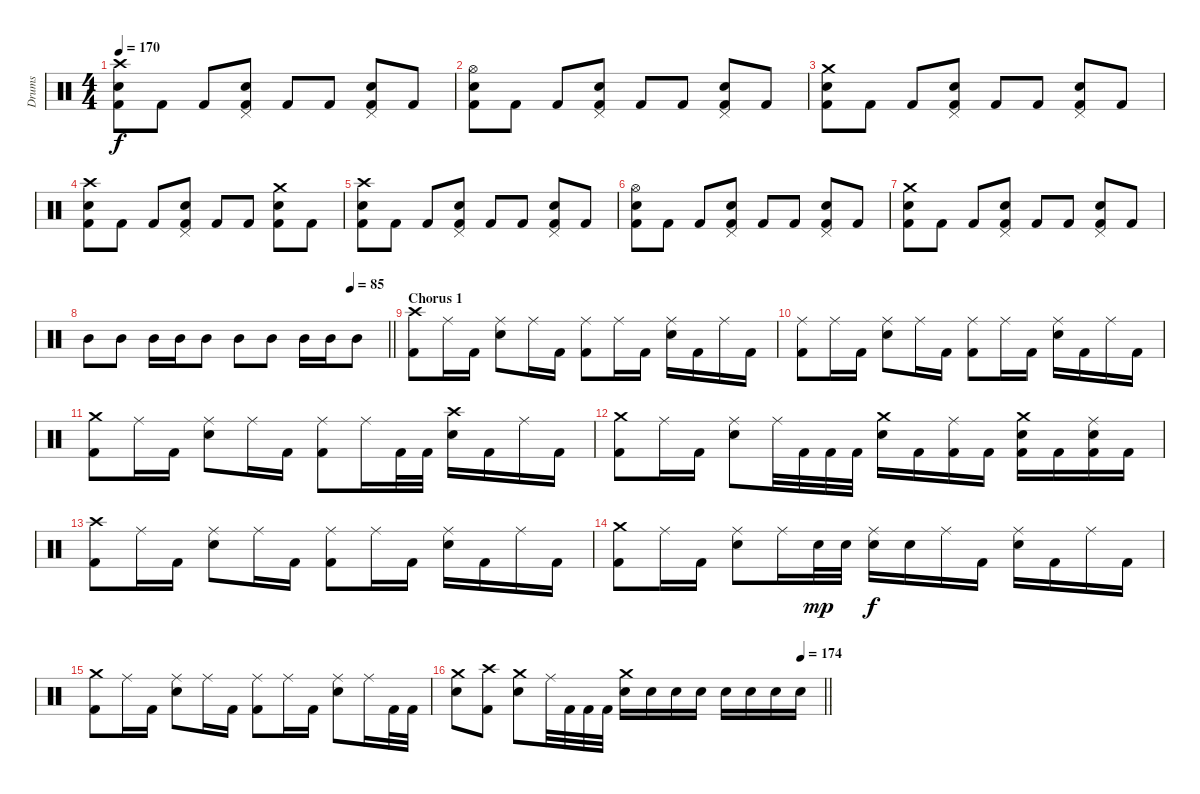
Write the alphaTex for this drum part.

\track ("Drums" "Drums") {instrument percussion}
\staff {score}
\articulation defaults
\ts (4 4)
\tempo 170
\clef neutral
\ks c
("Crash high (hit)" "Electric Snare (hit)" "Kick (hit) 2").8{dy f} "Kick (hit) 2".8 "Kick (hit) 2".8 ("Pedal Hi-Hat (hit)" "Electric Snare (hit)" "Kick (hit) 2").8 "Kick (hit) 2".8 "Kick (hit) 2".8 ("Pedal Hi-Hat (hit)" "Electric Snare (hit)" "Kick (hit) 2").8 "Kick (hit) 2".8 |
("Hi-Hat (open)" "Electric Snare (hit)" "Kick (hit) 2").8 "Kick (hit) 2".8 "Kick (hit) 2".8 ("Pedal Hi-Hat (hit)" "Electric Snare (hit)" "Kick (hit) 2").8 "Kick (hit) 2".8 "Kick (hit) 2".8 ("Pedal Hi-Hat (hit)" "Electric Snare (hit)" "Kick (hit) 2").8 "Kick (hit) 2".8 |
("Crash medium (hit)" "Electric Snare (hit)" "Kick (hit) 2").8 "Kick (hit) 2".8 "Kick (hit) 2".8 ("Pedal Hi-Hat (hit)" "Electric Snare (hit)" "Kick (hit) 2").8 "Kick (hit) 2".8 "Kick (hit) 2".8 ("Pedal Hi-Hat (hit)" "Electric Snare (hit)" "Kick (hit) 2").8 "Kick (hit) 2".8 |
("Crash high (hit)" "Electric Snare (hit)" "Kick (hit) 2").8 "Kick (hit) 2".8 "Kick (hit) 2".8 ("Pedal Hi-Hat (hit)" "Electric Snare (hit)" "Kick (hit) 2").8 "Kick (hit) 2".8 "Kick (hit) 2".8 ("Crash medium (hit)" "Electric Snare (hit)" "Kick (hit) 2").8 "Kick (hit) 2".8 |
("Crash high (hit)" "Electric Snare (hit)" "Kick (hit) 2").8 "Kick (hit) 2".8 "Kick (hit) 2".8 ("Pedal Hi-Hat (hit)" "Electric Snare (hit)" "Kick (hit) 2").8 "Kick (hit) 2".8 "Kick (hit) 2".8 ("Pedal Hi-Hat (hit)" "Electric Snare (hit)" "Kick (hit) 2").8 "Kick (hit) 2".8 |
("Hi-Hat (open)" "Electric Snare (hit)" "Kick (hit) 2").8 "Kick (hit) 2".8 "Kick (hit) 2".8 ("Pedal Hi-Hat (hit)" "Electric Snare (hit)" "Kick (hit) 2").8 "Kick (hit) 2".8 "Kick (hit) 2".8 ("Pedal Hi-Hat (hit)" "Electric Snare (hit)" "Kick (hit) 2").8 "Kick (hit) 2".8 |
("Crash medium (hit)" "Electric Snare (hit)" "Kick (hit) 2").8 "Kick (hit) 2".8 "Kick (hit) 2".8 ("Pedal Hi-Hat (hit)" "Electric Snare (hit)" "Kick (hit) 2").8 "Kick (hit) 2".8 "Kick (hit) 2".8 ("Pedal Hi-Hat (hit)" "Electric Snare (hit)" "Kick (hit) 2").8 "Kick (hit) 2".8 |
\tempo (85 0.875)
\barLineRight lightlight "Mid Tom (hit)".8 "Mid Tom (hit)".8 "Mid Tom (hit)".16 "Mid Tom (hit)".16 "Mid Tom (hit)".8 "Mid Tom (hit)".8 "Mid Tom (hit)".8 "Mid Tom (hit)".16 "Mid Tom (hit)".16 "Mid Tom (hit)".8
|
\section ("" "Chorus 1")
("Crash high (hit)" "Kick (hit) 2").8 "Ride (middle)".16 "Kick (hit) 2".16 ("Ride (middle)" "Electric Snare (hit)").8 "Ride (middle)".16 "Kick (hit) 2".16 ("Ride (middle)" "Kick (hit) 2").8 "Ride (middle)".16 "Kick (hit) 2".16 ("Ride (middle)" "Electric Snare (hit)").16 "Kick (hit) 2".16 "Ride (middle)".16 "Kick (hit) 2".16 |
("Ride (middle)" "Kick (hit) 2").8 "Ride (middle)".16 "Kick (hit) 2".16 ("Ride (middle)" "Electric Snare (hit)").8 "Ride (middle)".16 "Kick (hit) 2".16 ("Ride (middle)" "Kick (hit) 2").8 "Ride (middle)".16 "Kick (hit) 2".16 ("Ride (middle)" "Electric Snare (hit)").16 "Kick (hit) 2".16 "Ride (middle)".16 "Kick (hit) 2".16 |
("Crash medium (hit)" "Kick (hit) 2").8 "Ride (middle)".16 "Kick (hit) 2".16 ("Ride (middle)" "Electric Snare (hit)").8 "Ride (middle)".16 "Kick (hit) 2".16 ("Ride (middle)" "Kick (hit) 2").8 "Ride (middle)".16 "Kick (hit) 2".32 "Kick (hit) 2".32 ("Crash high (hit)" "Electric Snare (hit)").16 "Kick (hit) 2".16 "Ride (middle)".16 "Kick (hit) 2".16 |
("Crash medium (hit)" "Kick (hit) 2").8 "Ride (middle)".16 "Kick (hit) 2".16 ("Ride (middle)" "Electric Snare (hit)").8 "Ride (middle)".32 "Kick (hit) 2".32 "Kick (hit) 2".32 "Kick (hit) 2".32 ("Crash medium (hit)" "Electric Snare (hit)").16 "Kick (hit) 2".16 ("Ride (middle)" "Kick (hit) 2").16 "Kick (hit) 2".16 ("Crash medium (hit)" "Electric Snare (hit)" "Kick (hit) 2").16 "Kick (hit) 2".16 ("Ride (middle)" "Electric Snare (hit)" "Kick (hit) 2").16 "Kick (hit) 2".16 |
("Crash high (hit)" "Kick (hit) 2").8 "Ride (middle)".16 "Kick (hit) 2".16 ("Ride (middle)" "Electric Snare (hit)").8 "Ride (middle)".16 "Kick (hit) 2".16 ("Ride (middle)" "Kick (hit) 2").8 "Ride (middle)".16 "Kick (hit) 2".16 ("Ride (middle)" "Electric Snare (hit)").16 "Kick (hit) 2".16 "Ride (middle)".16 "Kick (hit) 2".16 |
("Crash medium (hit)" "Kick (hit) 2").8 "Ride (middle)".16 "Kick (hit) 2".16 ("Ride (middle)" "Electric Snare (hit)").8 "Ride (middle)".16 "Electric Snare (hit)".32{dy mp} "Electric Snare (hit)".32 ("Ride (middle)" "Electric Snare (hit)").16{dy f} "Electric Snare (hit)".16 "Ride (middle)".16 "Kick (hit) 2".16 ("Ride (middle)" "Electric Snare (hit)").16 "Kick (hit) 2".16 "Ride (middle)".16 "Kick (hit) 2".16 |
("Crash medium (hit)" "Kick (hit) 2").8 "Ride (middle)".16 "Kick (hit) 2".16 ("Ride (middle)" "Electric Snare (hit)").8 "Ride (middle)".16 "Kick (hit) 2".16 ("Ride (middle)" "Kick (hit) 2").8 "Ride (middle)".16 "Kick (hit) 2".16 ("Ride (middle)" "Electric Snare (hit)").8 "Ride (middle)".16 "Kick (hit) 2".32 "Kick (hit) 2".32 |
\tempo (174 0.9375)
\barLineRight lightlight
("Crash medium (hit)" "Electric Snare (hit)").8 ("Crash high (hit)" "Kick (hit) 2").8 ("Crash medium (hit)" "Electric Snare (hit)").8 "Ride (middle)".32 "Kick (hit) 2".32 "Kick (hit) 2".32 "Kick (hit) 2".32 ("Crash medium (hit)" "Electric Snare (hit)").16 "Electric Snare (hit)".16 "Electric Snare (hit)".16 "Electric Snare (hit)".16 "Electric Snare (hit)".16 "Electric Snare (hit)".16 "Electric Snare (hit)".16 "Electric Snare (hit)".16
